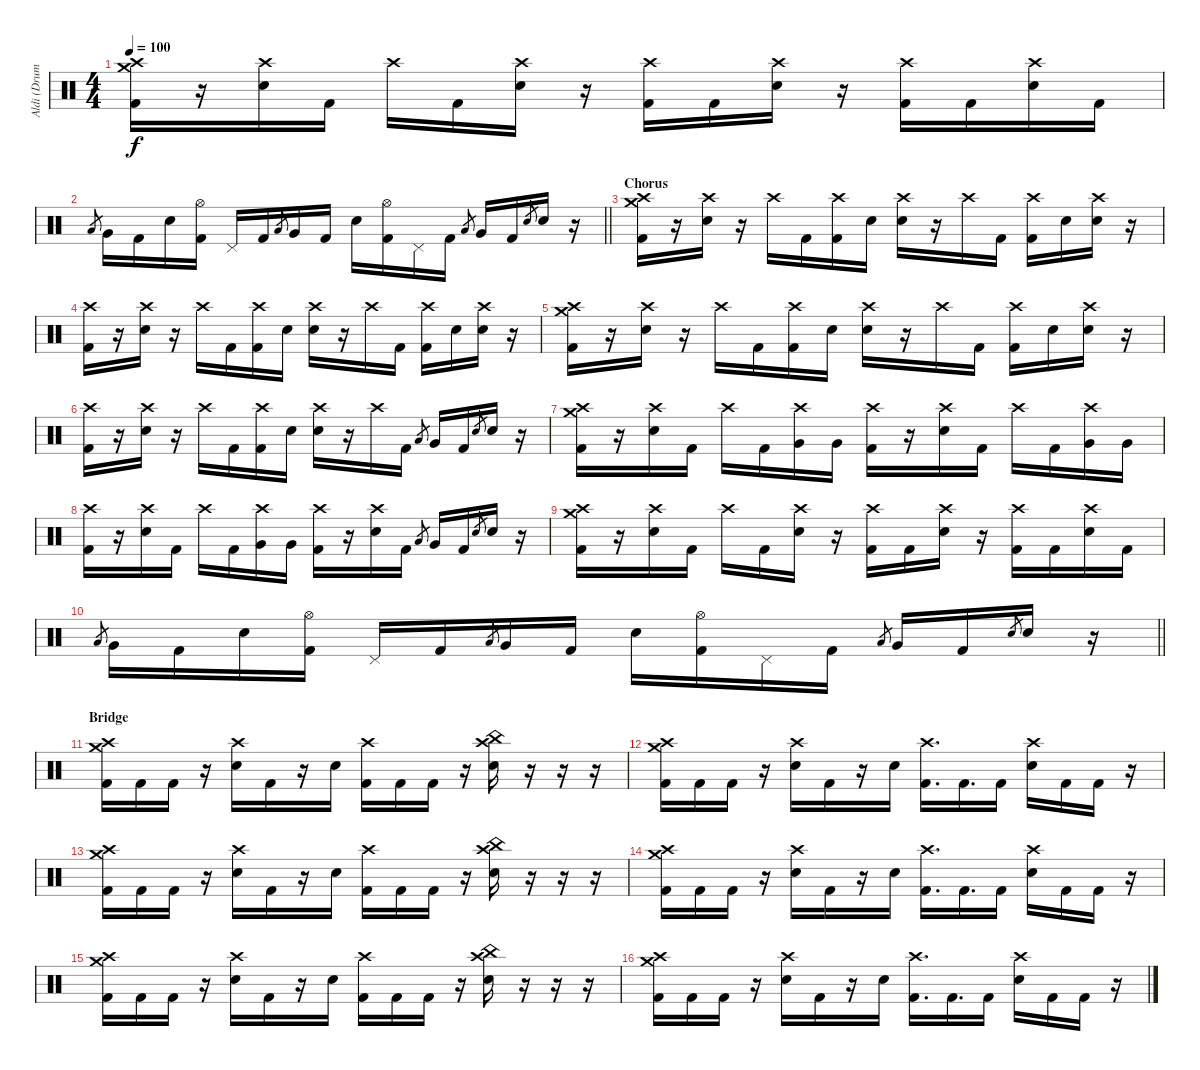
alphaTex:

\track ("Aldi (Drum)" "Aldi (Drum") {instrument percussion}
\staff {score}
\articulation defaults
\ts (4 4)
\tempo 100
\clef neutral
\ks c
("Crash medium (hit)" "Crash high (hit)" "Kick (hit) 2").16{dy f} r.16 ("Crash high (hit)" "Electric Snare (hit)").16 "Kick (hit) 2".16 "Crash high (hit)".16 "Kick (hit) 2".16 ("Crash high (hit)" "Electric Snare (hit)").16 r.16 ("Crash high (hit)" "Kick (hit) 2").16 "Kick (hit) 2".16 ("Crash high (hit)" "Electric Snare (hit)").16 r.16 ("Crash high (hit)" "Kick (hit) 2").16 "Kick (hit) 2".16 ("Crash high (hit)" "Electric Snare (hit)").16 "Kick (hit) 2".16 |
\barLineRight lightlight "Low Floor Tom (hit)".8{gr} "Very Low Tom (hit)".16 "Kick (hit) 2".16 "Electric Snare (hit)".16
("Hi-Hat (open)" "Kick (hit) 2").16 "Pedal Hi-Hat (hit)".16 "Kick (hit) 2".16 "Low Floor Tom (hit)".8{gr} "Very Low Tom (hit)".16 "Kick (hit) 2".16 "Electric Snare (hit)".16 ("Hi-Hat (open)" "Kick (hit) 2").16 "Pedal Hi-Hat (hit)".16 "Kick (hit) 2".16 "Low Floor Tom (hit)".8{gr} "Very Low Tom (hit)".16 "Kick (hit) 2".16 "Electric Snare (hit)".8{gr} "Electric Snare (hit)".16 r.16 |
\section ("" "Chorus")
("Crash medium (hit)" "Crash high (hit)" "Kick (hit) 2").16 r.16 ("Crash high (hit)" "Electric Snare (hit)").16 r.16 "Crash high (hit)".16 "Kick (hit) 2".16 ("Crash high (hit)" "Kick (hit) 2").16 "Electric Snare (hit)".16 ("Crash high (hit)" "Electric Snare (hit)").16 r.16 "Crash high (hit)".16 "Kick (hit) 2".16 ("Crash high (hit)" "Kick (hit) 2").16 "Electric Snare (hit)".16 ("Crash high (hit)" "Electric Snare (hit)").16 r.16 |
("Crash high (hit)" "Kick (hit) 2").16 r.16 ("Crash high (hit)" "Electric Snare (hit)").16 r.16 "Crash high (hit)".16 "Kick (hit) 2".16 ("Crash high (hit)" "Kick (hit) 2").16 "Electric Snare (hit)".16 ("Crash high (hit)" "Electric Snare (hit)").16 r.16 "Crash high (hit)".16 "Kick (hit) 2".16 ("Crash high (hit)" "Kick (hit) 2").16 "Electric Snare (hit)".16 ("Crash high (hit)" "Electric Snare (hit)").16 r.16 |
("Crash medium (hit)" "Crash high (hit)" "Kick (hit) 2").16 r.16 ("Crash high (hit)" "Electric Snare (hit)").16 r.16 "Crash high (hit)".16 "Kick (hit) 2".16 ("Crash high (hit)" "Kick (hit) 2").16 "Electric Snare (hit)".16 ("Crash high (hit)" "Electric Snare (hit)").16 r.16 "Crash high (hit)".16 "Kick (hit) 2".16 ("Crash high (hit)" "Kick (hit) 2").16 "Electric Snare (hit)".16 ("Crash high (hit)" "Electric Snare (hit)").16 r.16 |
("Crash high (hit)" "Kick (hit) 2").16 r.16 ("Crash high (hit)" "Electric Snare (hit)").16 r.16 "Crash high (hit)".16 "Kick (hit) 2".16 ("Crash high (hit)" "Kick (hit) 2").16 "Electric Snare (hit)".16 ("Crash high (hit)" "Electric Snare (hit)").16 r.16 "Crash high (hit)".16 "Kick (hit) 2".16 "Low Floor Tom (hit)".8{gr} "Very Low Tom (hit)".16 "Kick (hit) 2".16 "Electric Snare (hit)".8{gr} "Electric Snare (hit)".16 r.16 |
("Crash medium (hit)" "Crash high (hit)" "Kick (hit) 2").16 r.16 ("Crash high (hit)" "Electric Snare (hit)").16 "Kick (hit) 2".16 "Crash high (hit)".16 "Kick (hit) 2".16 ("Crash high (hit)" "Very Low Tom (hit)").16 "Very Low Tom (hit)".16 ("Crash high (hit)" "Kick (hit) 2").16 r.16 ("Crash high (hit)" "Electric Snare (hit)").16 "Kick (hit) 2".16 "Crash high (hit)".16 "Kick (hit) 2".16 ("Crash high (hit)" "Very Low Tom (hit)").16 "Very Low Tom (hit)".16 |
("Crash high (hit)" "Kick (hit) 2").16 r.16 ("Crash high (hit)" "Electric Snare (hit)").16 "Kick (hit) 2".16 "Crash high (hit)".16 "Kick (hit) 2".16 ("Crash high (hit)" "Very Low Tom (hit)").16 "Very Low Tom (hit)".16 ("Crash high (hit)" "Kick (hit) 2").16 r.16 ("Crash high (hit)" "Electric Snare (hit)").16 "Kick (hit) 2".16 "Low Floor Tom (hit)".8{gr} "Very Low Tom (hit)".16 "Kick (hit) 2".16 "Electric Snare (hit)".8{gr} "Electric Snare (hit)".16 r.16 |
("Crash medium (hit)" "Crash high (hit)" "Kick (hit) 2").16 r.16 ("Crash high (hit)" "Electric Snare (hit)").16 "Kick (hit) 2".16 "Crash high (hit)".16 "Kick (hit) 2".16 ("Crash high (hit)" "Electric Snare (hit)").16 r.16 ("Crash high (hit)" "Kick (hit) 2").16 "Kick (hit) 2".16 ("Crash high (hit)" "Electric Snare (hit)").16 r.16 ("Crash high (hit)" "Kick (hit) 2").16 "Kick (hit) 2".16 ("Crash high (hit)" "Electric Snare (hit)").16 "Kick (hit) 2".16 |
\barLineRight lightlight "Low Floor Tom (hit)".8{gr} "Very Low Tom (hit)".16 "Kick (hit) 2".16 "Electric Snare (hit)".16
("Hi-Hat (open)" "Kick (hit) 2").16 "Pedal Hi-Hat (hit)".16 "Kick (hit) 2".16 "Low Floor Tom (hit)".8{gr} "Very Low Tom (hit)".16 "Kick (hit) 2".16 "Electric Snare (hit)".16 ("Hi-Hat (open)" "Kick (hit) 2").16 "Pedal Hi-Hat (hit)".16 "Kick (hit) 2".16 "Low Floor Tom (hit)".8{gr} "Very Low Tom (hit)".16 "Kick (hit) 2".16 "Electric Snare (hit)".8{gr} "Electric Snare (hit)".16 r.16 |
\section ("" "Bridge")
("Crash medium (hit)" "Crash high (hit)" "Kick (hit) 2").16 "Kick (hit) 2".16 "Kick (hit) 2".16 r.16 ("Crash high (hit)" "Electric Snare (hit)").16 "Kick (hit) 2".16 r.16 "Electric Snare (hit)".16 ("Crash high (hit)" "Kick (hit) 2").16 "Kick (hit) 2".16 "Kick (hit) 2".16 r.16 ("China (hit)" "Crash high (hit)" "Electric Snare (hit)").16 r.16 r.16 r.16 |
("Crash medium (hit)" "Crash high (hit)" "Kick (hit) 2").16 "Kick (hit) 2".16 "Kick (hit) 2".16 r.16 ("Crash high (hit)" "Electric Snare (hit)").16 "Kick (hit) 2".16 r.16 "Electric Snare (hit)".16 ("Crash high (hit)" "Kick (hit) 2").16{d} "Kick (hit) 2".16{d} "Kick (hit) 2".16 ("Crash high (hit)" "Electric Snare (hit)").16 "Kick (hit) 2".16 "Kick (hit) 2".16 r.16 |
("Crash medium (hit)" "Crash high (hit)" "Kick (hit) 2").16 "Kick (hit) 2".16 "Kick (hit) 2".16 r.16 ("Crash high (hit)" "Electric Snare (hit)").16 "Kick (hit) 2".16 r.16 "Electric Snare (hit)".16 ("Crash high (hit)" "Kick (hit) 2").16 "Kick (hit) 2".16 "Kick (hit) 2".16 r.16 ("China (hit)" "Crash high (hit)" "Electric Snare (hit)").16 r.16 r.16 r.16 |
("Crash medium (hit)" "Crash high (hit)" "Kick (hit) 2").16 "Kick (hit) 2".16 "Kick (hit) 2".16 r.16 ("Crash high (hit)" "Electric Snare (hit)").16 "Kick (hit) 2".16 r.16 "Electric Snare (hit)".16 ("Crash high (hit)" "Kick (hit) 2").16{d} "Kick (hit) 2".16{d} "Kick (hit) 2".16 ("Crash high (hit)" "Electric Snare (hit)").16 "Kick (hit) 2".16 "Kick (hit) 2".16 r.16 |
("Crash medium (hit)" "Crash high (hit)" "Kick (hit) 2").16 "Kick (hit) 2".16 "Kick (hit) 2".16 r.16 ("Crash high (hit)" "Electric Snare (hit)").16 "Kick (hit) 2".16 r.16 "Electric Snare (hit)".16 ("Crash high (hit)" "Kick (hit) 2").16 "Kick (hit) 2".16 "Kick (hit) 2".16 r.16 ("China (hit)" "Crash high (hit)" "Electric Snare (hit)").16 r.16 r.16 r.16 |
("Crash medium (hit)" "Crash high (hit)" "Kick (hit) 2").16 "Kick (hit) 2".16 "Kick (hit) 2".16 r.16 ("Crash high (hit)" "Electric Snare (hit)").16 "Kick (hit) 2".16 r.16 "Electric Snare (hit)".16 ("Crash high (hit)" "Kick (hit) 2").16{d} "Kick (hit) 2".16{d} "Kick (hit) 2".16 ("Crash high (hit)" "Electric Snare (hit)").16 "Kick (hit) 2".16 "Kick (hit) 2".16 r.16
